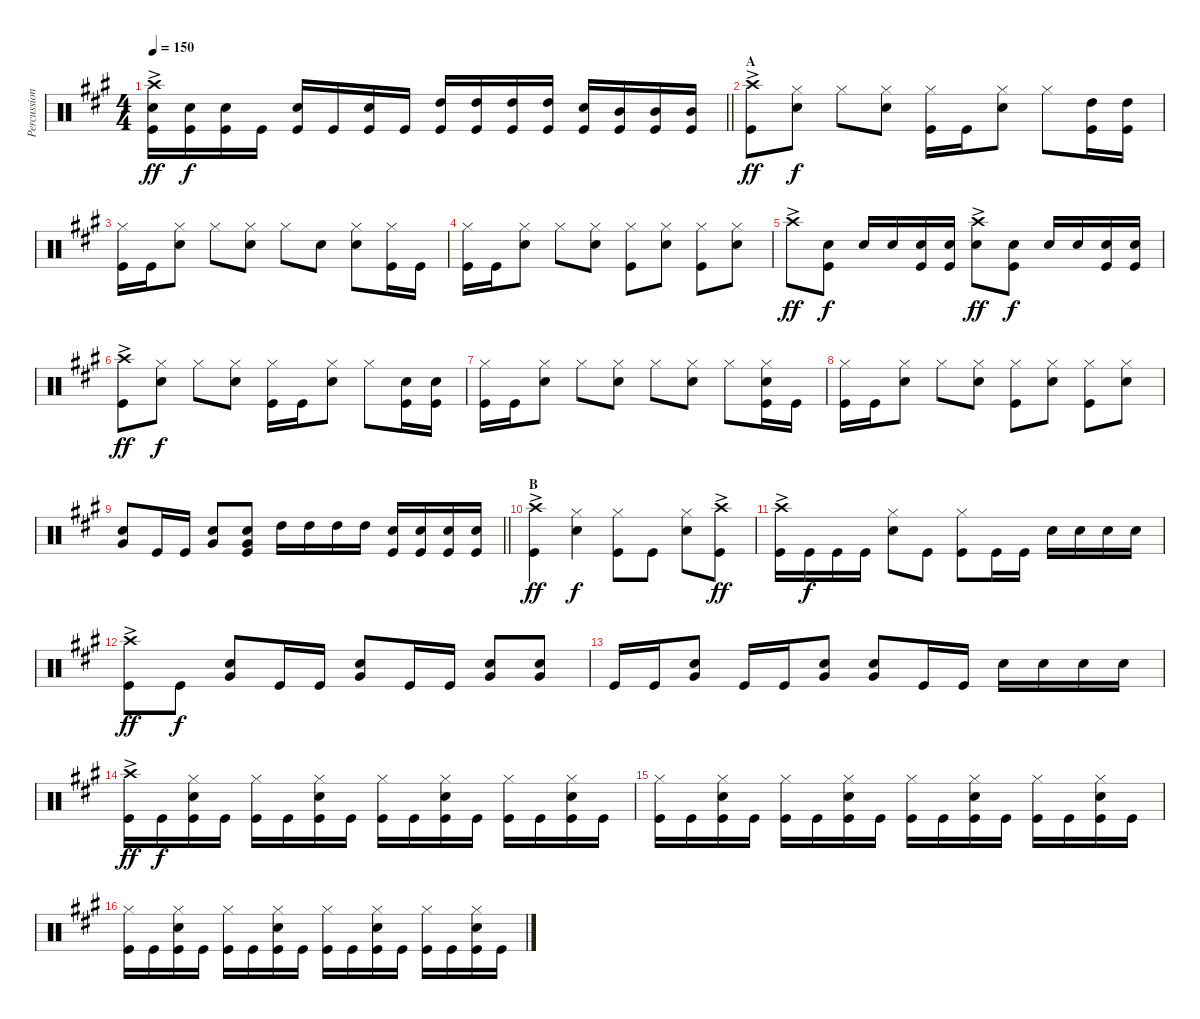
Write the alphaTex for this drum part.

\track ("Percussion" "Percussion") {instrument percussion}
\staff {score}
\articulation defaults
\ts (4 4)
\tempo 150
\clef neutral
\barLineRight lightlight
\ks a
("Crash high (hit)"{ac} "Snare (hit) 2" "Kick (hit)").16{dy ff} ("Snare (hit) 2" "Kick (hit)").16{dy f} ("Snare (hit) 2" "Kick (hit)").16 "Kick (hit)".16 ("Kick (hit)" "Snare (hit) 2").16 "Kick (hit)".16 ("Kick (hit)" "Snare (hit) 2").16 "Kick (hit)".16 ("Kick (hit)" "High Tom (hit)").16 ("Kick (hit)" "High Tom (hit)").16 ("Kick (hit)" "High Tom (hit)").16 ("Kick (hit)" "High Tom (hit)").16 ("Kick (hit)" "Snare (hit) 2").16 ("Kick (hit)" "Mid Tom (hit)").16 ("Kick (hit)" "Mid Tom (hit)").16 ("Kick (hit)" "Mid Tom (hit)").16 |
\section ("" "A")
("Crash high (hit)"{ac} "Kick (hit)").8{dy ff} ("Hi-Hat (closed)" "Snare (hit) 2").8{dy f} "Hi-Hat (closed)".8 ("Hi-Hat (closed)" "Snare (hit) 2").8 ("Hi-Hat (closed)" "Kick (hit)").16 "Kick (hit)".16 ("Hi-Hat (closed)" "Snare (hit) 2").8 "Hi-Hat (closed)".8 ("High Tom (hit)" "Kick (hit)").16 ("High Tom (hit)" "Kick (hit)").16 |
("Kick (hit)" "Hi-Hat (closed)").16 "Kick (hit)".16 ("Hi-Hat (closed)" "Snare (hit) 2").8 "Hi-Hat (closed)".8 ("Hi-Hat (closed)" "Snare (hit) 2").8 "Hi-Hat (closed)".8 "Snare (hit) 2".8 ("Hi-Hat (closed)" "Snare (hit) 2").8 ("Hi-Hat (closed)" "Kick (hit)").16 "Kick (hit)".16 |
("Kick (hit)" "Hi-Hat (closed)").16 "Kick (hit)".16 ("Hi-Hat (closed)" "Snare (hit) 2").8 "Hi-Hat (closed)".8 ("Hi-Hat (closed)" "Snare (hit) 2").8 ("Hi-Hat (closed)" "Kick (hit)").8 ("Hi-Hat (closed)" "Snare (hit) 2").8 ("Kick (hit)" "Hi-Hat (closed)").8 ("Hi-Hat (closed)" "Snare (hit) 2").8 |
"Crash high (hit)"{ac}.8{dy ff} ("Snare (hit) 2" "Kick (hit)").8{dy f} "Snare (hit) 2".16 "Snare (hit) 2".16 ("Snare (hit) 2" "Kick (hit)").16 ("Snare (hit) 2" "Kick (hit)").16 ("Crash high (hit)"{ac} "Snare (hit) 2").8{dy ff} ("Snare (hit) 2" "Kick (hit)").8{dy f} "Snare (hit) 2".16 "Snare (hit) 2".16 ("Snare (hit) 2" "Kick (hit)").16 ("Snare (hit) 2" "Kick (hit)").16 |
("Crash high (hit)"{ac} "Kick (hit)").8{dy ff} ("Hi-Hat (closed)" "Snare (hit) 2").8{dy f} "Hi-Hat (closed)".8 ("Hi-Hat (closed)" "Snare (hit) 2").8 ("Kick (hit)" "Hi-Hat (closed)").16 "Kick (hit)".16 ("Hi-Hat (closed)" "Snare (hit) 2").8 "Hi-Hat (closed)".8 ("Snare (hit) 2" "Kick (hit)").16 ("Kick (hit)" "Snare (hit) 2").16 |
("Hi-Hat (closed)" "Kick (hit)").16 "Kick (hit)".16 ("Hi-Hat (closed)" "Snare (hit) 2").8 "Hi-Hat (closed)".8 ("Hi-Hat (closed)" "Snare (hit) 2").8 "Hi-Hat (closed)".8 ("Hi-Hat (closed)" "Snare (hit) 2").8 "Hi-Hat (closed)".8 ("Hi-Hat (closed)" "Snare (hit) 2" "Kick (hit)").16 "Kick (hit)".16 |
("Kick (hit)" "Hi-Hat (closed)").16 "Kick (hit)".16 ("Hi-Hat (closed)" "Snare (hit) 2").8 "Hi-Hat (closed)".8 ("Hi-Hat (closed)" "Snare (hit) 2").8 ("Hi-Hat (closed)" "Kick (hit)").8 ("Hi-Hat (closed)" "Snare (hit) 2").8 ("Hi-Hat (closed)" "Kick (hit)").8 ("Hi-Hat (closed)" "Snare (hit) 2").8 |
\barLineRight lightlight
("Snare (hit) 2" "Very Low Tom (hit)").8 "Kick (hit)".16 "Kick (hit)".16 ("Snare (hit) 2" "Very Low Tom (hit)").8 ("Snare (hit) 2" "Very Low Tom (hit)" "Kick (hit)").8 "High Tom (hit)".16 "High Tom (hit)".16 "High Tom (hit)".16 "High Tom (hit)".16 ("Snare (hit) 2" "Kick (hit)").16 ("Snare (hit) 2" "Kick (hit)").16 ("Kick (hit)" "Snare (hit) 2").16 ("Snare (hit) 2" "Kick (hit)").16 |
\section ("" "B")
("Crash high (hit)"{ac} "Kick (hit)").4{dy ff} ("Hi-Hat (closed)" "Snare (hit) 2").4{dy f} ("Hi-Hat (closed)" "Kick (hit)").8 "Kick (hit)".8 ("Hi-Hat (closed)" "Snare (hit) 2").8 ("Crash high (hit)"{ac} "Kick (hit)").8{dy ff} |
("Crash high (hit)"{ac} "Kick (hit)").16 "Kick (hit)".16{dy f} "Kick (hit)".16 "Kick (hit)".16 ("Hi-Hat (closed)" "Snare (hit) 2").8 "Kick (hit)".8 ("Hi-Hat (closed)" "Kick (hit)").8 "Kick (hit)".16 "Kick (hit)".16 "Snare (hit) 2".16 "Snare (hit) 2".16 "Snare (hit) 2".16 "Snare (hit) 2".16 |
("Crash high (hit)"{ac} "Kick (hit)").8{dy ff} "Kick (hit)".8{dy f} ("Snare (hit) 2" "Very Low Tom (hit)").8 "Kick (hit)".16 "Kick (hit)".16 ("Snare (hit) 2" "Very Low Tom (hit)").8 "Kick (hit)".16 "Kick (hit)".16 ("Snare (hit) 2" "Very Low Tom (hit)").8 ("Snare (hit) 2" "Very Low Tom (hit)").8 |
"Kick (hit)".16 "Kick (hit)".16 ("Snare (hit) 2" "Very Low Tom (hit)").8 "Kick (hit)".16 "Kick (hit)".16 ("Snare (hit) 2" "Very Low Tom (hit)").8 ("Snare (hit) 2" "Very Low Tom (hit)").8 "Kick (hit)".16 "Kick (hit)".16 "Snare (hit) 2".16 "Snare (hit) 2".16 "Snare (hit) 2".16 "Snare (hit) 2".16 |
("Crash high (hit)"{ac} "Kick (hit)").16{dy ff} "Kick (hit)".16{dy f} ("Hi-Hat (closed)" "Snare (hit) 2" "Kick (hit)").16 "Kick (hit)".16 ("Hi-Hat (closed)" "Kick (hit)").16 "Kick (hit)".16 ("Kick (hit)" "Hi-Hat (closed)" "Snare (hit) 2").16 "Kick (hit)".16 ("Kick (hit)" "Hi-Hat (closed)").16 "Kick (hit)".16 ("Kick (hit)" "Hi-Hat (closed)" "Snare (hit) 2").16 "Kick (hit)".16 ("Kick (hit)" "Hi-Hat (closed)").16 "Kick (hit)".16 ("Hi-Hat (closed)" "Kick (hit)" "Snare (hit) 2").16 "Kick (hit)".16 |
("Hi-Hat (closed)" "Kick (hit)").16 "Kick (hit)".16 ("Hi-Hat (closed)" "Snare (hit) 2" "Kick (hit)").16 "Kick (hit)".16 ("Hi-Hat (closed)" "Kick (hit)").16 "Kick (hit)".16 ("Kick (hit)" "Hi-Hat (closed)" "Snare (hit) 2").16 "Kick (hit)".16 ("Kick (hit)" "Hi-Hat (closed)").16 "Kick (hit)".16 ("Kick (hit)" "Hi-Hat (closed)" "Snare (hit) 2").16 "Kick (hit)".16 ("Kick (hit)" "Hi-Hat (closed)").16 "Kick (hit)".16 ("Hi-Hat (closed)" "Kick (hit)" "Snare (hit) 2").16 "Kick (hit)".16 |
("Hi-Hat (closed)" "Kick (hit)").16 "Kick (hit)".16 ("Hi-Hat (closed)" "Snare (hit) 2" "Kick (hit)").16 "Kick (hit)".16 ("Hi-Hat (closed)" "Kick (hit)").16 "Kick (hit)".16 ("Kick (hit)" "Hi-Hat (closed)" "Snare (hit) 2").16 "Kick (hit)".16 ("Kick (hit)" "Hi-Hat (closed)").16 "Kick (hit)".16 ("Kick (hit)" "Hi-Hat (closed)" "Snare (hit) 2").16 "Kick (hit)".16 ("Kick (hit)" "Hi-Hat (closed)").16 "Kick (hit)".16 ("Hi-Hat (closed)" "Kick (hit)" "Snare (hit) 2").16 "Kick (hit)".16
